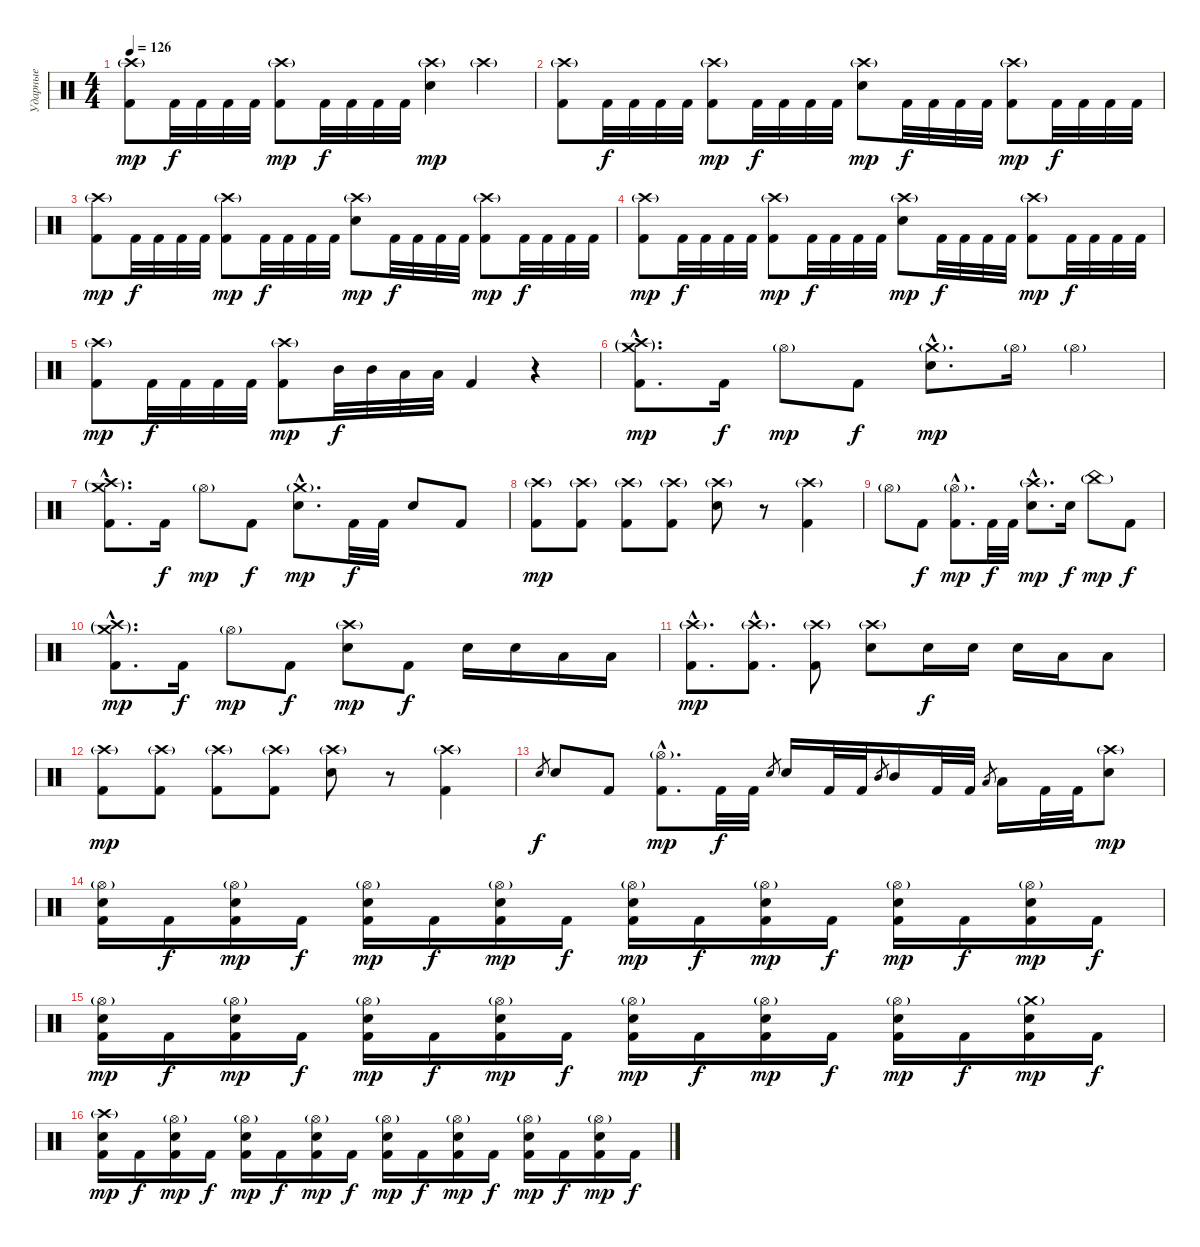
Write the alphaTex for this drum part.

\track ("Ударные" "Ударные") {instrument percussion}
\staff {score}
\articulation defaults
\ts (4 4)
\tempo 126
\clef neutral
\ks c
("Crash high (hit)"{g} "Kick (hit) 2").8{dy mp} "Kick (hit) 2".32{dy f} "Kick (hit) 2".32 "Kick (hit) 2".32 "Kick (hit) 2".32 ("Crash high (hit)"{g} "Kick (hit) 2").8{dy mp} "Kick (hit) 2".32{dy f} "Kick (hit) 2".32 "Kick (hit) 2".32 "Kick (hit) 2".32 ("Crash high (hit)"{g} "Electric Snare (hit)").4{dy mp} "Crash high (hit)"{g}.4 |
("Crash high (hit)"{g} "Kick (hit) 2").8 "Kick (hit) 2".32{dy f} "Kick (hit) 2".32 "Kick (hit) 2".32 "Kick (hit) 2".32 ("Crash high (hit)"{g} "Kick (hit) 2").8{dy mp} "Kick (hit) 2".32{dy f} "Kick (hit) 2".32 "Kick (hit) 2".32 "Kick (hit) 2".32 ("Crash high (hit)"{g} "Electric Snare (hit)").8{dy mp} "Kick (hit) 2".32{dy f} "Kick (hit) 2".32 "Kick (hit) 2".32 "Kick (hit) 2".32 ("Crash high (hit)"{g} "Kick (hit) 2").8{dy mp} "Kick (hit) 2".32{dy f} "Kick (hit) 2".32 "Kick (hit) 2".32 "Kick (hit) 2".32 |
("Crash high (hit)"{g} "Kick (hit) 2").8{dy mp} "Kick (hit) 2".32{dy f} "Kick (hit) 2".32 "Kick (hit) 2".32 "Kick (hit) 2".32 ("Crash high (hit)"{g} "Kick (hit) 2").8{dy mp} "Kick (hit) 2".32{dy f} "Kick (hit) 2".32 "Kick (hit) 2".32 "Kick (hit) 2".32 ("Crash high (hit)"{g} "Electric Snare (hit)").8{dy mp} "Kick (hit) 2".32{dy f} "Kick (hit) 2".32 "Kick (hit) 2".32 "Kick (hit) 2".32 ("Crash high (hit)"{g} "Kick (hit) 2").8{dy mp} "Kick (hit) 2".32{dy f} "Kick (hit) 2".32 "Kick (hit) 2".32 "Kick (hit) 2".32 |
("Crash high (hit)"{g} "Kick (hit) 2").8{dy mp} "Kick (hit) 2".32{dy f} "Kick (hit) 2".32 "Kick (hit) 2".32 "Kick (hit) 2".32 ("Crash high (hit)"{g} "Kick (hit) 2").8{dy mp} "Kick (hit) 2".32{dy f} "Kick (hit) 2".32 "Kick (hit) 2".32 "Kick (hit) 2".32 ("Crash high (hit)"{g} "Electric Snare (hit)").8{dy mp} "Kick (hit) 2".32{dy f} "Kick (hit) 2".32 "Kick (hit) 2".32 "Kick (hit) 2".32 ("Crash high (hit)"{g} "Kick (hit) 2").8{dy mp} "Kick (hit) 2".32{dy f} "Kick (hit) 2".32 "Kick (hit) 2".32 "Kick (hit) 2".32 |
("Crash high (hit)"{g} "Kick (hit) 2").8{dy mp} "Kick (hit) 2".32{dy f} "Kick (hit) 2".32 "Kick (hit) 2".32 "Kick (hit) 2".32 ("Crash high (hit)"{g} "Kick (hit) 2").8{dy mp} "Mid Tom (hit)".32{dy f} "Mid Tom (hit)".32 "Low Tom (hit)".32 "Low Tom (hit)".32 "Kick (hit) 2".4 r.4 |
("Crash high (hit)"{g hac} "Crash medium (hit)"{g hac} "Kick (hit) 2"{hac}).8{d dy mp} "Kick (hit) 2".16{dy f} "Hi-Hat (open)"{g}.8{dy mp} "Kick (hit) 2".8{dy f} ("Crash medium (hit)"{g hac} "Electric Snare (hit)"{hac}).8{d dy mp} "Hi-Hat (open)"{g}.16 "Hi-Hat (open)"{g}.4 |
("Crash high (hit)"{g hac} "Crash medium (hit)"{g hac} "Kick (hit) 2"{hac}).8{d} "Kick (hit) 2".16{dy f} "Hi-Hat (open)"{g}.8{dy mp} "Kick (hit) 2".8{dy f} ("Crash medium (hit)"{g hac} "Electric Snare (hit)"{hac}).8{d dy mp} "Kick (hit) 2".32{dy f} "Kick (hit) 2".32 "Electric Snare (hit)".8 "Kick (hit) 2".8 |
("Crash high (hit)"{g} "Kick (hit) 2").8{dy mp} ("Crash high (hit)"{g} "Kick (hit) 2").8 ("Crash high (hit)"{g} "Kick (hit) 2").8 ("Crash high (hit)"{g} "Kick (hit) 2").8 ("Crash high (hit)"{g} "Electric Snare (hit)").8 r.8{volume 0} ("Crash high (hit)"{g} "Kick (hit) 2").4{volume 16} |
"Hi-Hat (open)"{g}.8 "Kick (hit) 2".8{dy f} ("Hi-Hat (open)"{g hac} "Kick (hit) 2"{hac}).8{d dy mp} "Kick (hit) 2".32{dy f} "Kick (hit) 2".32 ("Crash high (hit)"{g hac} "Electric Snare (hit)"{hac}).8{d dy mp} "Electric Snare (hit)".16{dy f} "China (hit)"{g}.8{dy mp} "Kick (hit) 2".8{dy f} |
("Crash high (hit)"{g hac} "Crash medium (hit)"{g hac} "Kick (hit) 2"{hac}).8{d dy mp} "Kick (hit) 2".16{dy f} "Hi-Hat (open)"{g}.8{dy mp} "Kick (hit) 2".8{dy f} ("Crash high (hit)"{g} "Electric Snare (hit)").8{dy mp} "Kick (hit) 2".8{dy f} "Electric Snare (hit)".16 "Electric Snare (hit)".16 "Low Tom (hit)".16 "Low Tom (hit)".16 |
("Crash high (hit)"{g hac} "Kick (hit) 2"{hac}).8{d dy mp} ("Crash high (hit)"{g hac} "Kick (hit) 2"{hac}).8{d} ("Crash high (hit)"{g} "Kick (hit) 2").8 ("Crash high (hit)"{g} "Electric Snare (hit)").8 "Electric Snare (hit)".16{dy f} "Electric Snare (hit)".16 "Electric Snare (hit)".16 "Low Tom (hit)".16 "Low Tom (hit)".8 |
("Crash high (hit)"{g} "Kick (hit) 2").8{dy mp} ("Crash high (hit)"{g} "Kick (hit) 2").8 ("Crash high (hit)"{g} "Kick (hit) 2").8 ("Crash high (hit)"{g} "Kick (hit) 2").8 ("Crash high (hit)"{g} "Electric Snare (hit)").8 r.8{volume 0} ("Crash high (hit)"{g} "Kick (hit) 2").4{volume 16} |
"Electric Snare (hit)".8{gr dy f} "Electric Snare (hit)".8 "Kick (hit) 2".8 ("Hi-Hat (open)"{g hac} "Kick (hit) 2"{hac}).8{d dy mp} "Kick (hit) 2".32{dy f} "Kick (hit) 2".32 "Electric Snare (hit)".8{gr} "Electric Snare (hit)".16 "Kick (hit) 2".32 "Kick (hit) 2".32 "Mid Tom (hit)".8{gr} "Mid Tom (hit)".16 "Kick (hit) 2".32 "Kick (hit) 2".32 "Low Tom (hit)".8{gr} "Low Tom (hit)".16 "Kick (hit) 2".32 "Kick (hit) 2".32 ("Crash high (hit)"{g} "Electric Snare (hit)").8{dy mp} |
("Hi-Hat (open)"{g} "Electric Snare (hit)" "Kick (hit) 2").16 "Kick (hit) 2".16{dy f} ("Hi-Hat (open)"{g} "Electric Snare (hit)" "Kick (hit) 2").16{dy mp} "Kick (hit) 2".16{dy f} ("Hi-Hat (open)"{g} "Electric Snare (hit)" "Kick (hit) 2").16{dy mp} "Kick (hit) 2".16{dy f} ("Hi-Hat (open)"{g} "Electric Snare (hit)" "Kick (hit) 2").16{dy mp} "Kick (hit) 2".16{dy f} ("Hi-Hat (open)"{g} "Electric Snare (hit)" "Kick (hit) 2").16{dy mp} "Kick (hit) 2".16{dy f} ("Hi-Hat (open)"{g} "Electric Snare (hit)" "Kick (hit) 2").16{dy mp} "Kick (hit) 2".16{dy f} ("Hi-Hat (open)"{g} "Electric Snare (hit)" "Kick (hit) 2").16{dy mp} "Kick (hit) 2".16{dy f} ("Hi-Hat (open)"{g} "Electric Snare (hit)" "Kick (hit) 2").16{dy mp} "Kick (hit) 2".16{dy f} |
("Hi-Hat (open)"{g} "Electric Snare (hit)" "Kick (hit) 2").16{dy mp} "Kick (hit) 2".16{dy f} ("Hi-Hat (open)"{g} "Electric Snare (hit)" "Kick (hit) 2").16{dy mp} "Kick (hit) 2".16{dy f} ("Hi-Hat (open)"{g} "Electric Snare (hit)" "Kick (hit) 2").16{dy mp} "Kick (hit) 2".16{dy f} ("Hi-Hat (open)"{g} "Electric Snare (hit)" "Kick (hit) 2").16{dy mp} "Kick (hit) 2".16{dy f} ("Hi-Hat (open)"{g} "Electric Snare (hit)" "Kick (hit) 2").16{dy mp} "Kick (hit) 2".16{dy f} ("Hi-Hat (open)"{g} "Electric Snare (hit)" "Kick (hit) 2").16{dy mp} "Kick (hit) 2".16{dy f} ("Hi-Hat (open)"{g} "Electric Snare (hit)" "Kick (hit) 2").16{dy mp} "Kick (hit) 2".16{dy f} ("Crash medium (hit)"{g} "Electric Snare (hit)" "Kick (hit) 2").16{dy mp} "Kick (hit) 2".16{dy f} |
("Crash high (hit)"{g} "Electric Snare (hit)" "Kick (hit) 2").16{dy mp} "Kick (hit) 2".16{dy f} ("Hi-Hat (open)"{g} "Electric Snare (hit)" "Kick (hit) 2").16{dy mp} "Kick (hit) 2".16{dy f} ("Hi-Hat (open)"{g} "Electric Snare (hit)" "Kick (hit) 2").16{dy mp} "Kick (hit) 2".16{dy f} ("Hi-Hat (open)"{g} "Electric Snare (hit)" "Kick (hit) 2").16{dy mp} "Kick (hit) 2".16{dy f} ("Hi-Hat (open)"{g} "Electric Snare (hit)" "Kick (hit) 2").16{dy mp} "Kick (hit) 2".16{dy f} ("Hi-Hat (open)"{g} "Electric Snare (hit)" "Kick (hit) 2").16{dy mp} "Kick (hit) 2".16{dy f} ("Hi-Hat (open)"{g} "Electric Snare (hit)" "Kick (hit) 2").16{dy mp} "Kick (hit) 2".16{dy f} ("Hi-Hat (open)"{g} "Electric Snare (hit)" "Kick (hit) 2").16{dy mp} "Kick (hit) 2".16{dy f}
